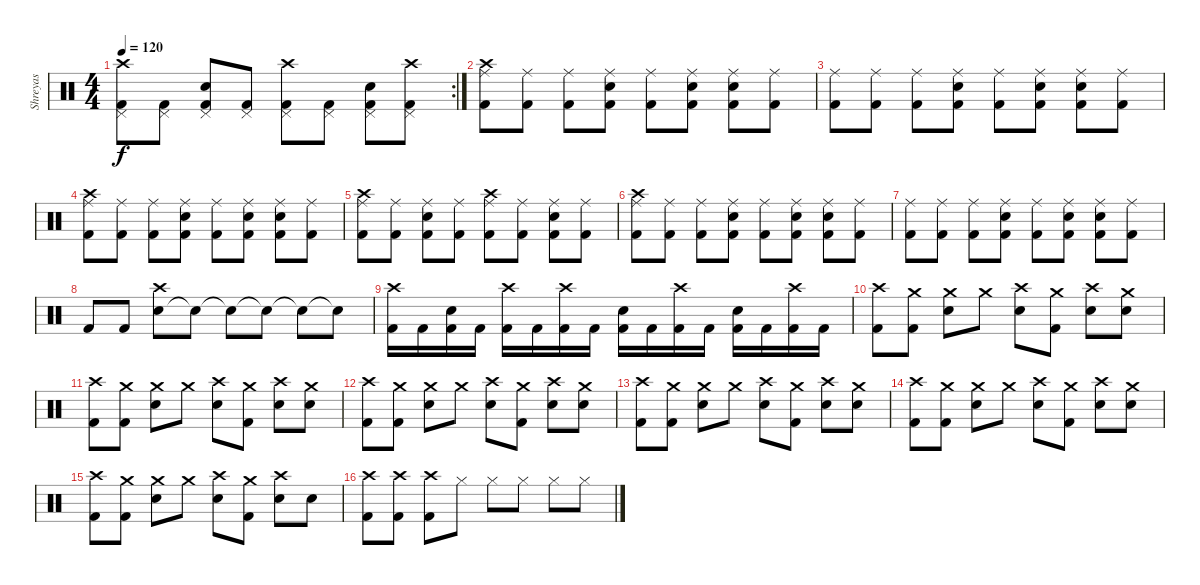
\track ("Shreyas" "Shreyas") {instrument percussion}
\staff {score}
\articulation defaults
\rc 2
\ts (4 4)
\tempo 120
\clef neutral
\ks c
("Crash high (hit)" "Kick (hit) 2" "Pedal Hi-Hat (hit)").8{dy f} ("Kick (hit) 2" "Pedal Hi-Hat (hit)").8 ("Snare (hit) 2" "Kick (hit) 2" "Pedal Hi-Hat (hit)").8 ("Kick (hit) 2" "Pedal Hi-Hat (hit)").8 ("Crash high (hit)" "Kick (hit) 2" "Pedal Hi-Hat (hit)").8 ("Kick (hit) 2" "Pedal Hi-Hat (hit)").8 ("Snare (hit) 2" "Kick (hit) 2" "Pedal Hi-Hat (hit)").8 ("Crash high (hit)" "Kick (hit) 2" "Pedal Hi-Hat (hit)").8 |
("Kick (hit) 2" "Crash high (hit)" "Ride (middle)").8 ("Kick (hit) 2" "Ride (middle)").8 ("Kick (hit) 2" "Ride (middle)").8 ("Kick (hit) 2" "Snare (hit) 2" "Ride (middle)").8 ("Kick (hit) 2" "Ride (middle)").8 ("Kick (hit) 2" "Snare (hit) 2" "Ride (middle)").8 ("Kick (hit) 2" "Snare (hit) 2" "Ride (middle)").8 ("Kick (hit) 2" "Ride (middle)").8 |
("Kick (hit) 2" "Ride (middle)").8 ("Kick (hit) 2" "Ride (middle)").8 ("Kick (hit) 2" "Ride (middle)").8 ("Kick (hit) 2" "Snare (hit) 2" "Ride (middle)").8 ("Kick (hit) 2" "Ride (middle)").8 ("Kick (hit) 2" "Snare (hit) 2" "Ride (middle)").8 ("Kick (hit) 2" "Snare (hit) 2" "Ride (middle)").8 ("Kick (hit) 2" "Ride (middle)").8 |
("Kick (hit) 2" "Crash high (hit)" "Ride (middle)").8 ("Kick (hit) 2" "Ride (middle)").8 ("Kick (hit) 2" "Ride (middle)").8 ("Kick (hit) 2" "Snare (hit) 2" "Ride (middle)").8 ("Kick (hit) 2" "Ride (middle)").8 ("Kick (hit) 2" "Snare (hit) 2" "Ride (middle)").8 ("Kick (hit) 2" "Snare (hit) 2" "Ride (middle)").8 ("Kick (hit) 2" "Ride (middle)").8 |
("Kick (hit) 2" "Crash high (hit)" "Ride (middle)").8 ("Kick (hit) 2" "Ride (middle)").8 ("Kick (hit) 2" "Snare (hit) 2" "Ride (middle)").8 ("Kick (hit) 2" "Ride (middle)").8 ("Kick (hit) 2" "Crash high (hit)" "Ride (middle)").8 ("Kick (hit) 2" "Ride (middle)").8 ("Kick (hit) 2" "Snare (hit) 2" "Ride (middle)").8 ("Kick (hit) 2" "Ride (middle)").8 |
("Kick (hit) 2" "Crash high (hit)" "Ride (middle)").8 ("Kick (hit) 2" "Ride (middle)").8 ("Kick (hit) 2" "Ride (middle)").8 ("Kick (hit) 2" "Snare (hit) 2" "Ride (middle)").8 ("Kick (hit) 2" "Ride (middle)").8 ("Kick (hit) 2" "Snare (hit) 2" "Ride (middle)").8 ("Kick (hit) 2" "Snare (hit) 2" "Ride (middle)").8 ("Kick (hit) 2" "Ride (middle)").8 |
("Kick (hit) 2" "Ride (middle)").8 ("Kick (hit) 2" "Ride (middle)").8 ("Kick (hit) 2" "Ride (middle)").8 ("Kick (hit) 2" "Snare (hit) 2" "Ride (middle)").8 ("Kick (hit) 2" "Ride (middle)").8 ("Kick (hit) 2" "Snare (hit) 2" "Ride (middle)").8 ("Kick (hit) 2" "Snare (hit) 2" "Ride (middle)").8 ("Kick (hit) 2" "Ride (middle)").8 |
"Kick (hit) 2".8 "Kick (hit) 2".8 ("Snare (hit) 2" "Crash high (hit)").8 "Snare (hit)"{t}.8 "Snare (hit)"{t}.8 "Snare (hit)"{t}.8 "Snare (hit)"{t}.8 "Snare (hit)"{t}.8 |
("Crash high (hit)" "Kick (hit) 2").16 "Kick (hit) 2".16 ("Snare (hit) 2" "Kick (hit) 2").16 "Kick (hit) 2".16 ("Crash high (hit)" "Kick (hit) 2").16 "Kick (hit) 2".16 ("Crash high (hit)" "Kick (hit) 2").16 "Kick (hit) 2".16 ("Snare (hit) 2" "Kick (hit) 2").16 "Kick (hit) 2".16 ("Crash high (hit)" "Kick (hit) 2").16 "Kick (hit) 2".16 ("Snare (hit) 2" "Kick (hit) 2").16 "Kick (hit) 2".16 ("Crash high (hit)" "Kick (hit) 2").16 "Kick (hit) 2".16 |
("Kick (hit) 2" "Crash high (hit)").8 ("Kick (hit) 2" "Crash medium (hit)").8 ("Snare (hit) 2" "Crash medium (hit)").8 "Crash medium (hit)".8 ("Snare (hit) 2" "Crash high (hit)").8 ("Kick (hit) 2" "Crash medium (hit)").8 ("Snare (hit) 2" "Crash high (hit)").8 ("Snare (hit) 2" "Crash medium (hit)").8 |
("Kick (hit) 2" "Crash high (hit)").8 ("Kick (hit) 2" "Crash medium (hit)").8 ("Snare (hit) 2" "Crash medium (hit)").8 "Crash medium (hit)".8 ("Snare (hit) 2" "Crash high (hit)").8 ("Kick (hit) 2" "Crash medium (hit)").8 ("Snare (hit) 2" "Crash high (hit)").8 ("Snare (hit) 2" "Crash medium (hit)").8 |
("Kick (hit) 2" "Crash high (hit)").8 ("Kick (hit) 2" "Crash medium (hit)").8 ("Snare (hit) 2" "Crash medium (hit)").8 "Crash medium (hit)".8 ("Snare (hit) 2" "Crash high (hit)").8 ("Kick (hit) 2" "Crash medium (hit)").8 ("Snare (hit) 2" "Crash high (hit)").8 ("Snare (hit) 2" "Crash medium (hit)").8 |
("Kick (hit) 2" "Crash high (hit)").8 ("Kick (hit) 2" "Crash medium (hit)").8 ("Snare (hit) 2" "Crash medium (hit)").8 "Crash medium (hit)".8 ("Snare (hit) 2" "Crash high (hit)").8 ("Kick (hit) 2" "Crash medium (hit)").8 ("Snare (hit) 2" "Crash high (hit)").8 ("Snare (hit) 2" "Crash medium (hit)").8 |
("Kick (hit) 2" "Crash high (hit)").8 ("Kick (hit) 2" "Crash medium (hit)").8 ("Snare (hit) 2" "Crash medium (hit)").8 "Crash medium (hit)".8 ("Snare (hit) 2" "Crash high (hit)").8 ("Kick (hit) 2" "Crash medium (hit)").8 ("Snare (hit) 2" "Crash high (hit)").8 ("Snare (hit) 2" "Crash medium (hit)").8 |
("Kick (hit) 2" "Crash high (hit)").8 ("Kick (hit) 2" "Crash medium (hit)").8 ("Snare (hit) 2" "Crash medium (hit)").8 "Crash medium (hit)".8 ("Snare (hit) 2" "Crash high (hit)").8 ("Kick (hit) 2" "Crash medium (hit)").8 ("Snare (hit) 2" "Crash high (hit)").8 "Snare (hit) 2".8 |
("Kick (hit) 2" "Crash high (hit)").8 ("Kick (hit) 2" "Crash high (hit)").8 ("Kick (hit) 2" "Crash high (hit)").8 "Hi-Hat (closed)".8 "Hi-Hat (closed)".8 "Hi-Hat (closed)".8 "Hi-Hat (closed)".8 "Hi-Hat (closed)".8
